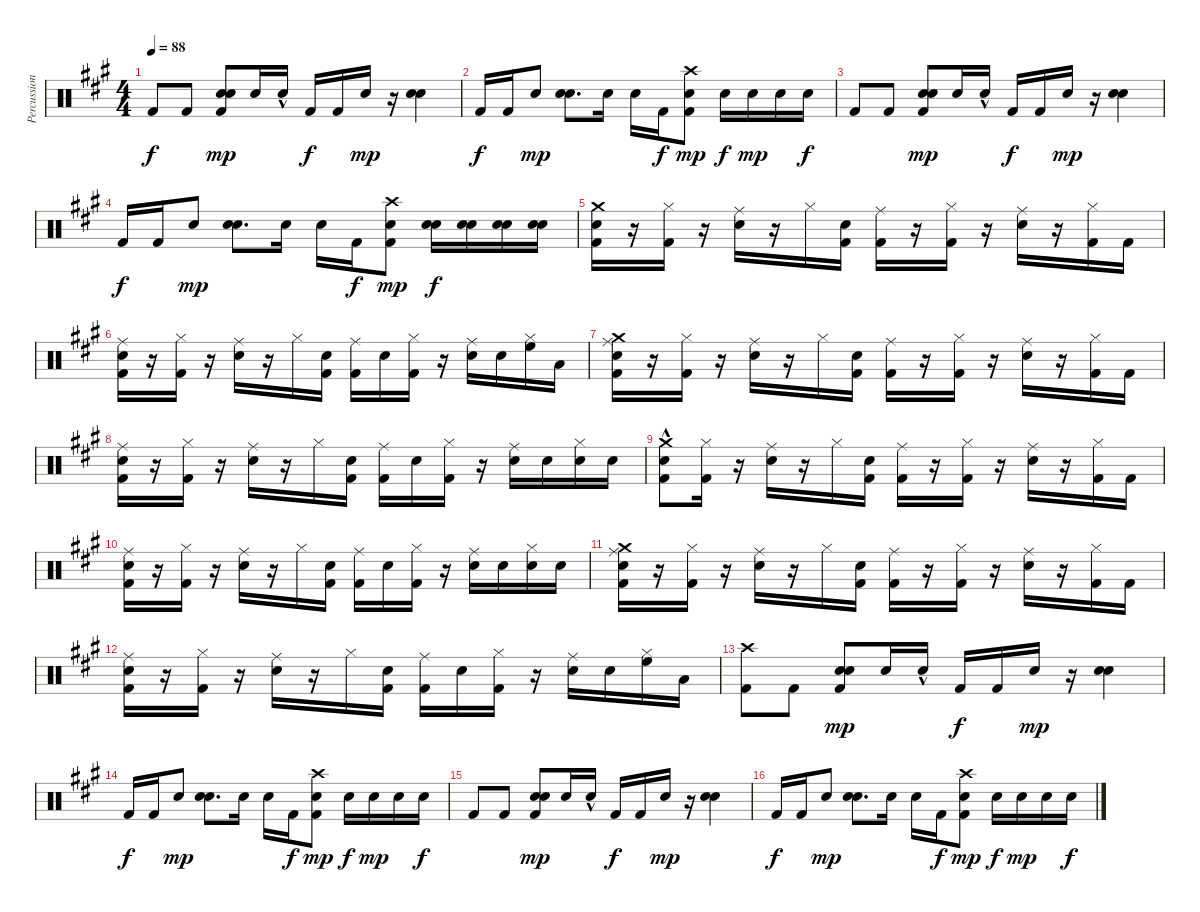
\track ("Percussion" "Percussion") {instrument percussion}
\staff {score}
\articulation defaults
\ts (4 4)
\tempo 88
\clef neutral
\ks f#minor "Kick (hit) 2".8{dy f} "Kick (hit) 2".8
("Electric Snare (hit)" "Kick (hit) 2" "Hand Clap (hit)").8{dy mp} "Hand Clap (hit)".16 "Hand Clap (hit)"{hac}.16 "Kick (hit) 2".16{dy f} "Kick (hit) 2".16 "Hand Clap (hit)".16{dy mp} r.16 ("Electric Snare (hit)" "Hand Clap (hit)").4 |
"Kick (hit) 2".16{dy f} "Kick (hit) 2".16 "Hand Clap (hit)".8{dy mp} ("Electric Snare (hit)" "Hand Clap (hit)").8{d} "Hand Clap (hit)".16 "Hand Clap (hit)".16 "Kick (hit) 2".16{dy f} ("Hand Clap (hit)" "Crash high (hit)" "Kick (hit) 2").8{dy mp} "Electric Snare (hit)".16{dy f} "Hand Clap (hit)".16{dy mp} "Hand Clap (hit)".16 "Electric Snare (hit)".16{dy f} |
"Kick (hit) 2".8 "Kick (hit) 2".8 ("Electric Snare (hit)" "Kick (hit) 2" "Hand Clap (hit)").8{dy mp} "Hand Clap (hit)".16 "Hand Clap (hit)"{hac}.16 "Kick (hit) 2".16{dy f} "Kick (hit) 2".16 "Hand Clap (hit)".16{dy mp} r.16 ("Electric Snare (hit)" "Hand Clap (hit)").4 |
"Kick (hit) 2".16{dy f} "Kick (hit) 2".16 "Hand Clap (hit)".8{dy mp} ("Electric Snare (hit)" "Hand Clap (hit)").8{d} "Hand Clap (hit)".16 "Hand Clap (hit)".16 "Kick (hit) 2".16{dy f} ("Hand Clap (hit)" "Crash high (hit)" "Kick (hit) 2").8{dy mp} ("Electric Snare (hit)" "Snare (hit) 2").16{dy f} ("Hand Clap (hit)" "Snare (hit) 2").16 ("Hand Clap (hit)" "Snare (hit) 2").16 ("Electric Snare (hit)" "Snare (hit) 2").16 |
("Crash medium (hit)" "Snare (hit) 2" "Kick (hit) 2").16 r.16 ("Kick (hit) 2" "Hi-Hat (closed)").16 r.16 ("Ride (middle)" "Snare (hit) 2").16 r.16 "Hi-Hat (closed)".16 ("Snare (hit) 2" "Kick (hit) 2").16 ("Ride (middle)" "Kick (hit) 2").16 r.16 ("Hi-Hat (closed)" "Kick (hit) 2").16 r.16 ("Snare (hit) 2" "Ride (middle)").16 r.16 ("Kick (hit) 2" "Hi-Hat (closed)").16 "Kick (hit) 2".16 |
("Ride (middle)" "Snare (hit) 2" "Kick (hit) 2").16 r.16 ("Hi-Hat (closed)" "Kick (hit) 2").16 r.16 ("Ride (middle)" "Snare (hit) 2").16 r.16 "Hi-Hat (closed)".16 ("Snare (hit) 2" "Kick (hit) 2").16 ("Kick (hit) 2" "Ride (middle)").16 "Snare (hit) 2".16 ("Hi-Hat (closed)" "Kick (hit) 2").16 r.16 ("Snare (hit) 2" "Ride (middle)").16 "Snare (hit) 2".16 ("Hi-Hat (closed)" "High Floor Tom (hit)").16 "Low Tom (hit)".16 |
("Crash medium (hit)" "Snare (hit) 2" "Ride (middle)" "Kick (hit) 2").16 r.16 ("Kick (hit) 2" "Hi-Hat (closed)").16 r.16 ("Ride (middle)" "Snare (hit) 2").16 r.16 "Hi-Hat (closed)".16 ("Snare (hit) 2" "Kick (hit) 2").16 ("Kick (hit) 2" "Ride (middle)").16 r.16 ("Hi-Hat (closed)" "Kick (hit) 2").16 r.16 ("Snare (hit) 2" "Ride (middle)").16 r.16 ("Kick (hit) 2" "Hi-Hat (closed)").16 "Kick (hit) 2".16 |
("Ride (middle)" "Kick (hit) 2" "Snare (hit) 2").16 r.16 ("Hi-Hat (closed)" "Kick (hit) 2").16 r.16 ("Ride (middle)" "Snare (hit) 2").16 r.16 "Hi-Hat (closed)".16 ("Snare (hit) 2" "Kick (hit) 2").16 ("Ride (middle)" "Kick (hit) 2").16 "Snare (hit) 2".16 ("Hi-Hat (closed)" "Kick (hit) 2").16 r.16 ("Snare (hit) 2" "Ride (middle)").16 "Snare (hit) 2".16 ("Snare (hit) 2" "Hi-Hat (closed)").16 "Snare (hit) 2".16 |
("Crash medium (hit)" "Snare (hit) 2"{hac} "Kick (hit) 2").8 ("Kick (hit) 2" "Hi-Hat (closed)").16 r.16 ("Ride (middle)" "Snare (hit) 2").16 r.16 "Hi-Hat (closed)".16 ("Snare (hit) 2" "Kick (hit) 2").16 ("Ride (middle)" "Kick (hit) 2").16 r.16 ("Hi-Hat (closed)" "Kick (hit) 2").16 r.16 ("Snare (hit) 2" "Ride (middle)").16 r.16 ("Kick (hit) 2" "Hi-Hat (closed)").16 "Kick (hit) 2".16 |
("Ride (middle)" "Snare (hit) 2" "Kick (hit) 2").16 r.16 ("Hi-Hat (closed)" "Kick (hit) 2").16 r.16 ("Ride (middle)" "Snare (hit) 2").16 r.16 "Hi-Hat (closed)".16 ("Snare (hit) 2" "Kick (hit) 2").16 ("Kick (hit) 2" "Ride (middle)").16 "Snare (hit) 2".16 ("Hi-Hat (closed)" "Kick (hit) 2").16 r.16 ("Snare (hit) 2" "Ride (middle)").16 "Snare (hit) 2".16 ("Snare (hit) 2" "Hi-Hat (closed)").16 "Snare (hit) 2".16 |
("Ride (middle)" "Kick (hit) 2" "Crash medium (hit)" "Snare (hit) 2").16 r.16 ("Kick (hit) 2" "Hi-Hat (closed)").16 r.16 ("Ride (middle)" "Snare (hit) 2").16 r.16 "Hi-Hat (closed)".16 ("Snare (hit) 2" "Kick (hit) 2").16 ("Kick (hit) 2" "Ride (middle)").16 r.16 ("Hi-Hat (closed)" "Kick (hit) 2").16 r.16 ("Snare (hit) 2" "Ride (middle)").16 r.16 ("Kick (hit) 2" "Hi-Hat (closed)").16 "Kick (hit) 2".16 |
("Ride (middle)" "Kick (hit) 2" "Snare (hit) 2").16 r.16 ("Hi-Hat (closed)" "Kick (hit) 2").16 r.16 ("Ride (middle)" "Snare (hit) 2").16 r.16 "Hi-Hat (closed)".16 ("Snare (hit) 2" "Kick (hit) 2").16 ("Ride (middle)" "Kick (hit) 2").16 "Snare (hit) 2".16 ("Hi-Hat (closed)" "Kick (hit) 2").16 r.16 ("Snare (hit) 2" "Ride (middle)").16 "Snare (hit) 2".16 ("Hi-Hat (closed)" "High Floor Tom (hit)").16 "Low Tom (hit)".16 |
("Kick (hit) 2" "Crash high (hit)").8 "Kick (hit) 2".8 ("Electric Snare (hit)" "Kick (hit) 2" "Hand Clap (hit)").8{dy mp} "Hand Clap (hit)".16 "Hand Clap (hit)"{hac}.16 "Kick (hit) 2".16{dy f} "Kick (hit) 2".16 "Hand Clap (hit)".16{dy mp} r.16 ("Electric Snare (hit)" "Hand Clap (hit)").4 |
"Kick (hit) 2".16{dy f} "Kick (hit) 2".16 "Hand Clap (hit)".8{dy mp} ("Electric Snare (hit)" "Hand Clap (hit)").8{d} "Hand Clap (hit)".16 "Hand Clap (hit)".16 "Kick (hit) 2".16{dy f} ("Hand Clap (hit)" "Crash high (hit)" "Kick (hit) 2").8{dy mp} "Electric Snare (hit)".16{dy f} "Hand Clap (hit)".16{dy mp} "Hand Clap (hit)".16 "Electric Snare (hit)".16{dy f} |
"Kick (hit) 2".8 "Kick (hit) 2".8 ("Electric Snare (hit)" "Kick (hit) 2" "Hand Clap (hit)").8{dy mp} "Hand Clap (hit)".16 "Hand Clap (hit)"{hac}.16 "Kick (hit) 2".16{dy f} "Kick (hit) 2".16 "Hand Clap (hit)".16{dy mp} r.16 ("Electric Snare (hit)" "Hand Clap (hit)").4 |
"Kick (hit) 2".16{dy f} "Kick (hit) 2".16 "Hand Clap (hit)".8{dy mp} ("Electric Snare (hit)" "Hand Clap (hit)").8{d} "Hand Clap (hit)".16 "Hand Clap (hit)".16 "Kick (hit) 2".16{dy f} ("Hand Clap (hit)" "Crash high (hit)" "Kick (hit) 2").8{dy mp} "Electric Snare (hit)".16{dy f} "Hand Clap (hit)".16{dy mp} "Hand Clap (hit)".16 "Electric Snare (hit)".16{dy f}
